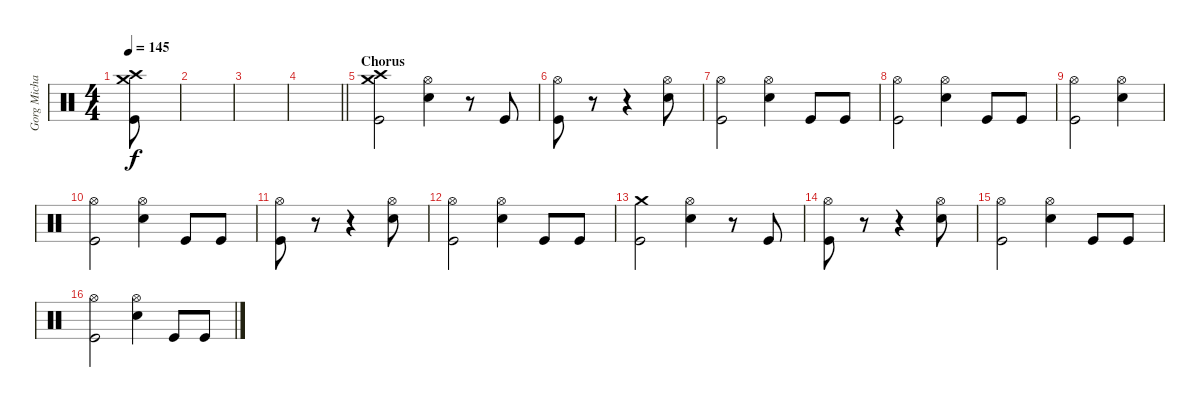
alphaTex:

\track ("Gorg Michael" "Gorg Micha") {instrument percussion}
\staff {score}
\articulation defaults
\ts (4 4)
\tempo 145
\clef neutral
\ks c
("Crash high (hit)" "Crash medium (hit)" "Kick (hit)").8{dy f} |
|
|
\barLineRight lightlight
|
\section ("" "Chorus")
("Crash high (hit)" "Crash medium (hit)" "Kick (hit)").2 ("Hi-Hat (open)" "Snare (hit) 2").4 r.8 "Kick (hit)".8 |
("Hi-Hat (open)" "Kick (hit)").8 r.8 r.4 ("Hi-Hat (open)" "Snare (hit) 2").8 |
("Hi-Hat (open)" "Kick (hit)").2 ("Hi-Hat (open)" "Snare (hit) 2").4 "Kick (hit)".8 "Kick (hit)".8 |
("Hi-Hat (open)" "Kick (hit)").2 ("Hi-Hat (open)" "Snare (hit) 2").4 "Kick (hit)".8 "Kick (hit)".8 |
("Hi-Hat (open)" "Kick (hit)").2 ("Hi-Hat (open)" "Snare (hit) 2").4 |
("Hi-Hat (open)" "Kick (hit)").2 ("Hi-Hat (open)" "Snare (hit) 2").4 "Kick (hit)".8 "Kick (hit)".8 |
("Hi-Hat (open)" "Kick (hit)").8 r.8 r.4 ("Hi-Hat (open)" "Snare (hit) 2").8 |
("Hi-Hat (open)" "Kick (hit)").2 ("Hi-Hat (open)" "Snare (hit) 2").4 "Kick (hit)".8 "Kick (hit)".8 |
("Crash medium (hit)" "Kick (hit)").2 ("Hi-Hat (open)" "Snare (hit) 2").4 r.8 "Kick (hit)".8 |
("Hi-Hat (open)" "Kick (hit)").8 r.8 r.4 ("Hi-Hat (open)" "Snare (hit) 2").8 |
("Hi-Hat (open)" "Kick (hit)").2 ("Hi-Hat (open)" "Snare (hit) 2").4 "Kick (hit)".8 "Kick (hit)".8 |
("Hi-Hat (open)" "Kick (hit)").2 ("Hi-Hat (open)" "Snare (hit) 2").4 "Kick (hit)".8 "Kick (hit)".8
